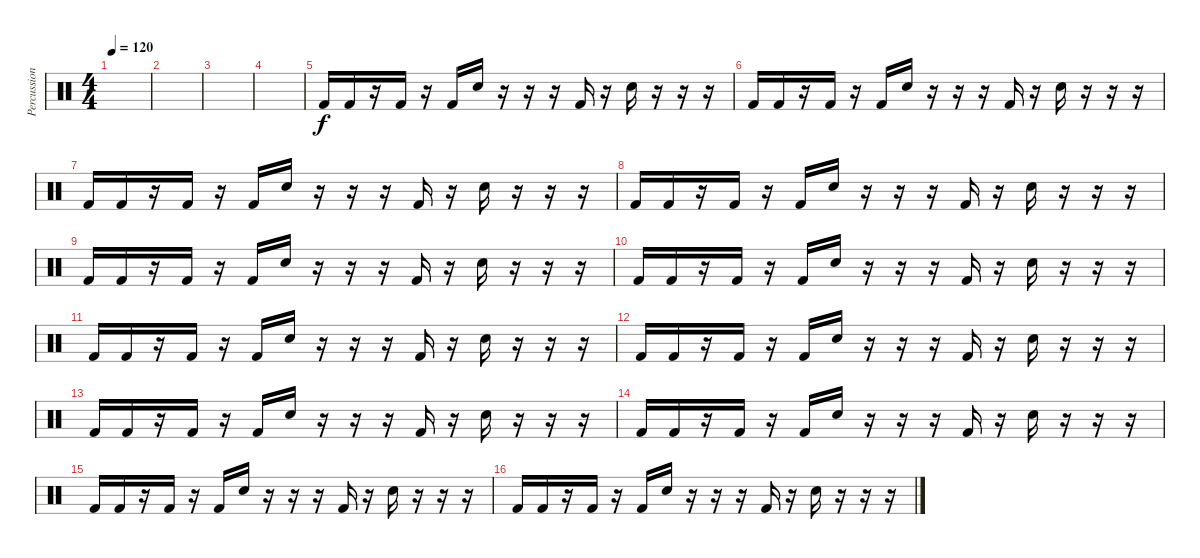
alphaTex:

\track ("Percussion" "Percussion") {instrument percussion}
\staff {score}
\articulation defaults
\ts (4 4)
\tempo 120
\clef neutral
\ks c
|
|
|
|
"Kick (hit) 2".16 "Kick (hit) 2".16 r.16 "Kick (hit) 2".16 r.16 "Kick (hit) 2".16 "Electric Snare (hit)".16 r.16 r.16 r.16 "Kick (hit) 2".16 r.16 "Electric Snare (hit)".16 r.16 r.16 r.16 |
"Kick (hit) 2".16 "Kick (hit) 2".16 r.16 "Kick (hit) 2".16 r.16 "Kick (hit) 2".16 "Electric Snare (hit)".16 r.16 r.16 r.16 "Kick (hit) 2".16 r.16 "Electric Snare (hit)".16 r.16 r.16 r.16 |
"Kick (hit) 2".16 "Kick (hit) 2".16 r.16 "Kick (hit) 2".16 r.16 "Kick (hit) 2".16 "Electric Snare (hit)".16 r.16 r.16 r.16 "Kick (hit) 2".16 r.16 "Electric Snare (hit)".16 r.16 r.16 r.16 |
"Kick (hit) 2".16 "Kick (hit) 2".16 r.16 "Kick (hit) 2".16 r.16 "Kick (hit) 2".16 "Electric Snare (hit)".16 r.16 r.16 r.16 "Kick (hit) 2".16 r.16 "Electric Snare (hit)".16 r.16 r.16 r.16 |
"Kick (hit) 2".16 "Kick (hit) 2".16 r.16 "Kick (hit) 2".16 r.16 "Kick (hit) 2".16 "Electric Snare (hit)".16 r.16 r.16 r.16 "Kick (hit) 2".16 r.16 "Electric Snare (hit)".16 r.16 r.16 r.16 |
"Kick (hit) 2".16 "Kick (hit) 2".16 r.16 "Kick (hit) 2".16 r.16 "Kick (hit) 2".16 "Electric Snare (hit)".16 r.16 r.16 r.16 "Kick (hit) 2".16 r.16 "Electric Snare (hit)".16 r.16 r.16 r.16 |
"Kick (hit) 2".16 "Kick (hit) 2".16 r.16 "Kick (hit) 2".16 r.16 "Kick (hit) 2".16 "Electric Snare (hit)".16 r.16 r.16 r.16 "Kick (hit) 2".16 r.16 "Electric Snare (hit)".16 r.16 r.16 r.16 |
"Kick (hit) 2".16 "Kick (hit) 2".16 r.16 "Kick (hit) 2".16 r.16 "Kick (hit) 2".16 "Electric Snare (hit)".16 r.16 r.16 r.16 "Kick (hit) 2".16 r.16 "Electric Snare (hit)".16 r.16 r.16 r.16 |
"Kick (hit) 2".16 "Kick (hit) 2".16 r.16 "Kick (hit) 2".16 r.16 "Kick (hit) 2".16 "Electric Snare (hit)".16 r.16 r.16 r.16 "Kick (hit) 2".16 r.16 "Electric Snare (hit)".16 r.16 r.16 r.16 |
"Kick (hit) 2".16 "Kick (hit) 2".16 r.16 "Kick (hit) 2".16 r.16 "Kick (hit) 2".16 "Electric Snare (hit)".16 r.16 r.16 r.16 "Kick (hit) 2".16 r.16 "Electric Snare (hit)".16 r.16 r.16 r.16 |
"Kick (hit) 2".16 "Kick (hit) 2".16 r.16 "Kick (hit) 2".16 r.16 "Kick (hit) 2".16 "Electric Snare (hit)".16 r.16 r.16 r.16 "Kick (hit) 2".16 r.16 "Electric Snare (hit)".16 r.16 r.16 r.16 |
"Kick (hit) 2".16 "Kick (hit) 2".16 r.16 "Kick (hit) 2".16 r.16 "Kick (hit) 2".16 "Electric Snare (hit)".16 r.16 r.16 r.16 "Kick (hit) 2".16 r.16 "Electric Snare (hit)".16 r.16 r.16 r.16
